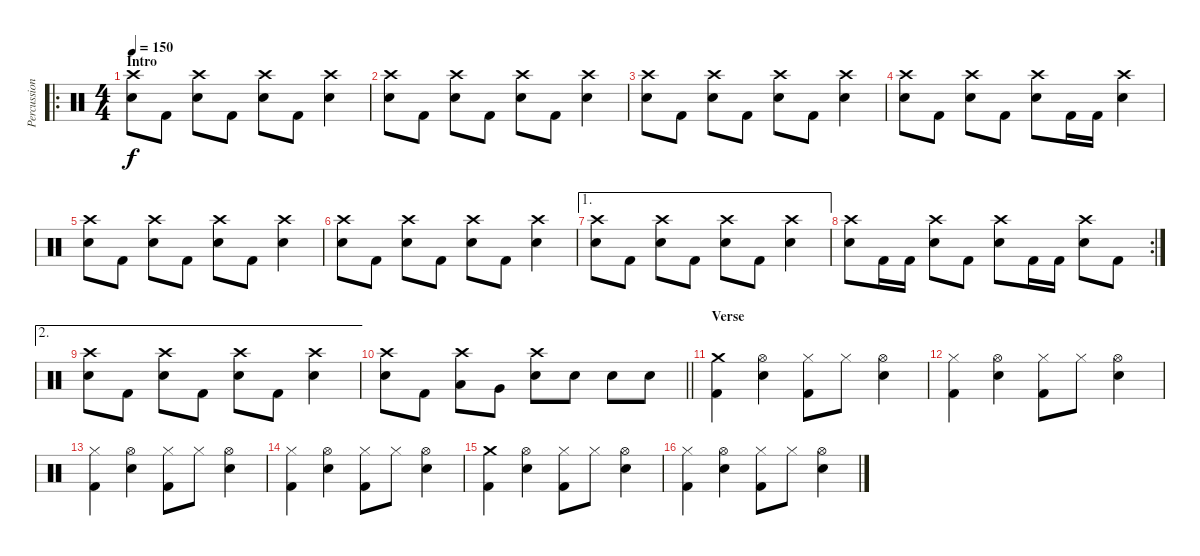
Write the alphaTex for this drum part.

\track ("Percussion" "Percussion") {instrument percussion}
\staff {score}
\articulation defaults
\ro
\ts (4 4)
\section ("" "Intro")
\tempo 150
\clef neutral
\ks c
("Crash high (hit)" "Electric Snare (hit)").8{dy f} "Kick (hit) 2".8 ("Crash high (hit)" "Electric Snare (hit)").8 "Kick (hit) 2".8 ("Crash high (hit)" "Electric Snare (hit)").8 "Kick (hit) 2".8 ("Crash high (hit)" "Electric Snare (hit)").4 |
("Crash high (hit)" "Electric Snare (hit)").8 "Kick (hit) 2".8 ("Crash high (hit)" "Electric Snare (hit)").8 "Kick (hit) 2".8 ("Crash high (hit)" "Electric Snare (hit)").8 "Kick (hit) 2".8 ("Crash high (hit)" "Electric Snare (hit)").4 |
("Crash high (hit)" "Electric Snare (hit)").8 "Kick (hit) 2".8 ("Crash high (hit)" "Electric Snare (hit)").8 "Kick (hit) 2".8 ("Crash high (hit)" "Electric Snare (hit)").8 "Kick (hit) 2".8 ("Crash high (hit)" "Electric Snare (hit)").4 |
("Crash high (hit)" "Electric Snare (hit)").8 "Kick (hit) 2".8 ("Crash high (hit)" "Electric Snare (hit)").8 "Kick (hit) 2".8 ("Crash high (hit)" "Electric Snare (hit)").8 "Kick (hit) 2".16 "Kick (hit) 2".16 ("Crash high (hit)" "Electric Snare (hit)").4 |
("Crash high (hit)" "Electric Snare (hit)").8 "Kick (hit) 2".8 ("Crash high (hit)" "Electric Snare (hit)").8 "Kick (hit) 2".8 ("Crash high (hit)" "Electric Snare (hit)").8 "Kick (hit) 2".8 ("Crash high (hit)" "Electric Snare (hit)").4 |
("Crash high (hit)" "Electric Snare (hit)").8 "Kick (hit) 2".8 ("Crash high (hit)" "Electric Snare (hit)").8 "Kick (hit) 2".8 ("Crash high (hit)" "Electric Snare (hit)").8 "Kick (hit) 2".8 ("Crash high (hit)" "Electric Snare (hit)").4 |
\ae 1
("Crash high (hit)" "Electric Snare (hit)").8 "Kick (hit) 2".8 ("Crash high (hit)" "Electric Snare (hit)").8 "Kick (hit) 2".8 ("Crash high (hit)" "Electric Snare (hit)").8 "Kick (hit) 2".8 ("Crash high (hit)" "Electric Snare (hit)").4 |
\rc 2
("Crash high (hit)" "Electric Snare (hit)").8 "Kick (hit) 2".16 "Kick (hit) 2".16 ("Crash high (hit)" "Electric Snare (hit)").8 "Kick (hit) 2".8 ("Crash high (hit)" "Electric Snare (hit)").8 "Kick (hit) 2".16 "Kick (hit) 2".16 ("Crash high (hit)" "Electric Snare (hit)").8 "Kick (hit) 2".8 |
\ae 2
("Crash high (hit)" "Electric Snare (hit)").8 "Kick (hit) 2".8 ("Crash high (hit)" "Electric Snare (hit)").8 "Kick (hit) 2".8 ("Crash high (hit)" "Electric Snare (hit)").8 "Kick (hit) 2".8 ("Crash high (hit)" "Electric Snare (hit)").4 |
\barLineRight lightlight
("Crash high (hit)" "Electric Snare (hit)").8 "Kick (hit) 2".8 ("Crash high (hit)" "Low Tom (hit)").8 "Very Low Tom (hit)".8 ("Crash high (hit)" "Electric Snare (hit)").8 "Electric Snare (hit)".8 "Electric Snare (hit)".8 "Electric Snare (hit)".8 |
\section ("" "Verse")
("Crash medium (hit)" "Kick (hit) 2").4 ("Hi-Hat (open)" "Electric Snare (hit)").4 ("Hi-Hat (closed)" "Kick (hit) 2").8 "Hi-Hat (closed)".8 ("Hi-Hat (open)" "Electric Snare (hit)").4 |
("Hi-Hat (closed)" "Kick (hit) 2").4 ("Hi-Hat (open)" "Electric Snare (hit)").4 ("Hi-Hat (closed)" "Kick (hit) 2").8 "Hi-Hat (closed)".8 ("Hi-Hat (open)" "Electric Snare (hit)").4 |
("Hi-Hat (closed)" "Kick (hit) 2").4 ("Hi-Hat (open)" "Electric Snare (hit)").4 ("Hi-Hat (closed)" "Kick (hit) 2").8 "Hi-Hat (closed)".8 ("Hi-Hat (open)" "Electric Snare (hit)").4 |
("Hi-Hat (closed)" "Kick (hit) 2").4 ("Hi-Hat (open)" "Electric Snare (hit)").4 ("Hi-Hat (closed)" "Kick (hit) 2").8 "Hi-Hat (closed)".8 ("Hi-Hat (open)" "Electric Snare (hit)").4 |
("Crash medium (hit)" "Kick (hit) 2").4 ("Hi-Hat (open)" "Electric Snare (hit)").4 ("Hi-Hat (closed)" "Kick (hit) 2").8 "Hi-Hat (closed)".8 ("Hi-Hat (open)" "Electric Snare (hit)").4 |
("Hi-Hat (closed)" "Kick (hit) 2").4 ("Hi-Hat (open)" "Electric Snare (hit)").4 ("Hi-Hat (closed)" "Kick (hit) 2").8 "Hi-Hat (closed)".8 ("Hi-Hat (open)" "Electric Snare (hit)").4
